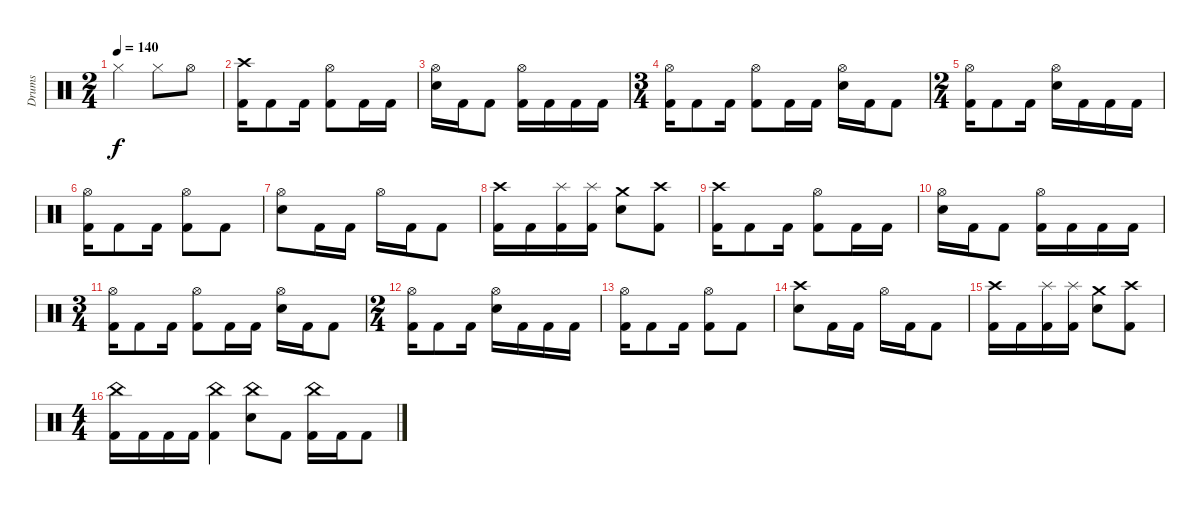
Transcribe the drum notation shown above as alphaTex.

\track ("Drums" "Drums") {instrument percussion}
\staff {score}
\articulation defaults
\ts (2 4)
\tempo 140
\clef neutral
\ks c "Hi-Hat (closed)".4{dy f} "Hi-Hat (closed)".8 "Hi-Hat (open)".8
|
("Crash high (hit)" "Kick (hit) 2").16 "Kick (hit) 2".8 "Kick (hit) 2".16 ("Hi-Hat (open)" "Kick (hit) 2").8 "Kick (hit) 2".16 "Kick (hit) 2".16 |
("Hi-Hat (open)" "Electric Snare (hit)").16 "Kick (hit) 2".16 "Kick (hit) 2".8 ("Hi-Hat (open)" "Kick (hit) 2").16 "Kick (hit) 2".16 "Kick (hit) 2".16 "Kick (hit) 2".16 |
\ts (3 4)
("Hi-Hat (open)" "Kick (hit) 2").16 "Kick (hit) 2".8 "Kick (hit) 2".16 ("Hi-Hat (open)" "Kick (hit) 2").8 "Kick (hit) 2".16 "Kick (hit) 2".16 ("Hi-Hat (open)" "Electric Snare (hit)").16 "Kick (hit) 2".16 "Kick (hit) 2".8 |
\ts (2 4)
("Hi-Hat (open)" "Kick (hit) 2").16 "Kick (hit) 2".8 "Kick (hit) 2".16 ("Hi-Hat (open)" "Electric Snare (hit)").16 "Kick (hit) 2".16 "Kick (hit) 2".16 "Kick (hit) 2".16 |
("Hi-Hat (open)" "Kick (hit) 2").16 "Kick (hit) 2".8 "Kick (hit) 2".16 ("Hi-Hat (open)" "Kick (hit) 2").8 "Kick (hit) 2".8 |
("Hi-Hat (open)" "Electric Snare (hit)").8 "Kick (hit) 2".16 "Kick (hit) 2".16 "Hi-Hat (open)".16 "Kick (hit) 2".16 "Kick (hit) 2".8 |
("Crash high (hit)" "Kick (hit) 2").16 "Kick (hit) 2".16 ("Splash (hit)" "Kick (hit) 2").16 ("Splash (hit)" "Kick (hit) 2").16 ("Crash medium (hit)" "Electric Snare (hit)").8 ("Crash high (hit)" "Kick (hit) 2").8 |
("Crash high (hit)" "Kick (hit) 2").16 "Kick (hit) 2".8 "Kick (hit) 2".16 ("Hi-Hat (open)" "Kick (hit) 2").8 "Kick (hit) 2".16 "Kick (hit) 2".16 |
("Hi-Hat (open)" "Electric Snare (hit)").16 "Kick (hit) 2".16 "Kick (hit) 2".8 ("Hi-Hat (open)" "Kick (hit) 2").16 "Kick (hit) 2".16 "Kick (hit) 2".16 "Kick (hit) 2".16 |
\ts (3 4)
("Hi-Hat (open)" "Kick (hit) 2").16 "Kick (hit) 2".8 "Kick (hit) 2".16 ("Hi-Hat (open)" "Kick (hit) 2").8 "Kick (hit) 2".16 "Kick (hit) 2".16 ("Hi-Hat (open)" "Electric Snare (hit)").16 "Kick (hit) 2".16 "Kick (hit) 2".8 |
\ts (2 4)
("Hi-Hat (open)" "Kick (hit) 2").16 "Kick (hit) 2".8 "Kick (hit) 2".16 ("Hi-Hat (open)" "Electric Snare (hit)").16 "Kick (hit) 2".16 "Kick (hit) 2".16 "Kick (hit) 2".16 |
("Hi-Hat (open)" "Kick (hit) 2").16 "Kick (hit) 2".8 "Kick (hit) 2".16 ("Hi-Hat (open)" "Kick (hit) 2").8 "Kick (hit) 2".8 |
("Crash high (hit)" "Electric Snare (hit)").8 "Kick (hit) 2".16 "Kick (hit) 2".16 "Hi-Hat (open)".16 "Kick (hit) 2".16 "Kick (hit) 2".8 |
("Crash high (hit)" "Kick (hit) 2").16 "Kick (hit) 2".16 ("Splash (hit)" "Kick (hit) 2").16 ("Splash (hit)" "Kick (hit) 2").16 ("Crash medium (hit)" "Electric Snare (hit)").8 ("Crash high (hit)" "Kick (hit) 2").8 |
\ts (4 4)
("China (hit)" "Kick (hit) 2").16 "Kick (hit) 2".16 "Kick (hit) 2".16 "Kick (hit) 2".16 ("China (hit)" "Kick (hit) 2").4 ("China (hit)" "Electric Snare (hit)").8 "Kick (hit) 2".8 ("China (hit)" "Kick (hit) 2").16 "Kick (hit) 2".16 "Kick (hit) 2".8
